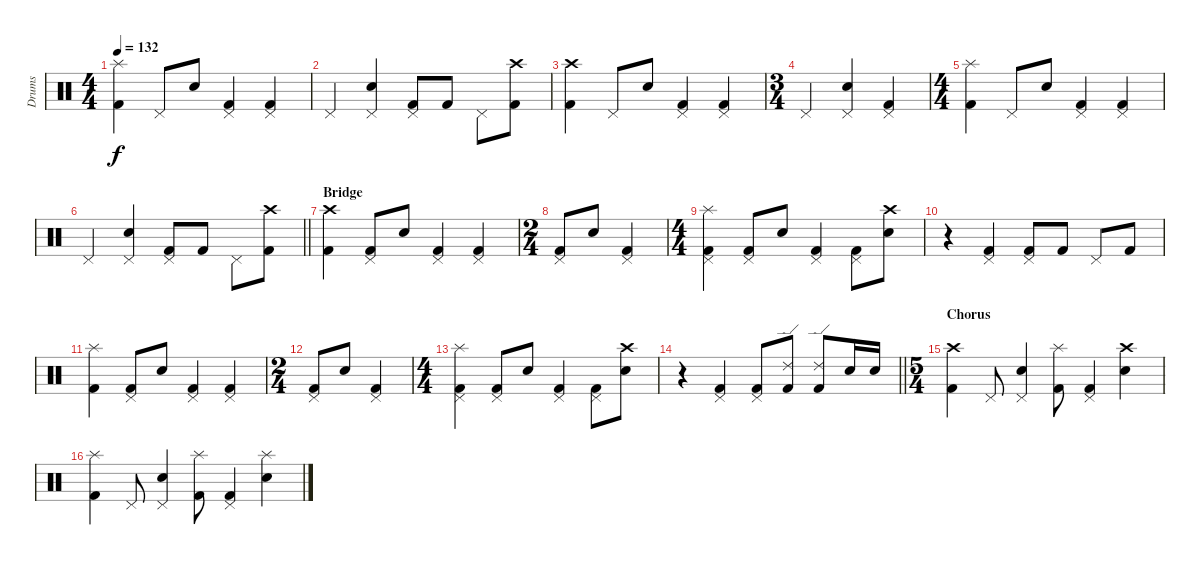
\track ("Drums" "Drums") {instrument percussion}
\staff {score}
\articulation defaults
\ts (4 4)
\tempo 132
\clef neutral
\ks c
("Splash (hit)" "Kick (hit) 2").4{dy f} "Pedal Hi-Hat (hit)".8 "Snare (hit) 2".8 ("Pedal Hi-Hat (hit)" "Kick (hit) 2").4 ("Pedal Hi-Hat (hit)" "Kick (hit) 2").4 |
"Pedal Hi-Hat (hit)".4 ("Pedal Hi-Hat (hit)" "Snare (hit) 2").4 ("Pedal Hi-Hat (hit)" "Kick (hit) 2").8 "Kick (hit) 2".8 "Pedal Hi-Hat (hit)".8 ("Crash high (hit)" "Kick (hit) 2").8 |
("Crash high (hit)" "Kick (hit) 2").4 "Pedal Hi-Hat (hit)".8 "Snare (hit) 2".8 ("Pedal Hi-Hat (hit)" "Kick (hit) 2").4 ("Pedal Hi-Hat (hit)" "Kick (hit) 2").4 |
\ts (3 4)
"Pedal Hi-Hat (hit)".4 ("Pedal Hi-Hat (hit)" "Snare (hit) 2").4 ("Pedal Hi-Hat (hit)" "Kick (hit) 2").4 |
\ts (4 4)
("Splash (hit)" "Kick (hit) 2").4 "Pedal Hi-Hat (hit)".8 "Snare (hit) 2".8 ("Pedal Hi-Hat (hit)" "Kick (hit) 2").4 ("Pedal Hi-Hat (hit)" "Kick (hit) 2").4 |
\barLineRight lightlight "Pedal Hi-Hat (hit)".4
("Pedal Hi-Hat (hit)" "Snare (hit) 2").4 ("Pedal Hi-Hat (hit)" "Kick (hit) 2").8 "Kick (hit) 2".8 "Pedal Hi-Hat (hit)".8 ("Crash high (hit)" "Kick (hit) 2").8 |
\section ("" "Bridge")
("Crash high (hit)" "Kick (hit) 2").4 ("Pedal Hi-Hat (hit)" "Kick (hit) 2").8 "Snare (hit) 2".8 ("Pedal Hi-Hat (hit)" "Kick (hit) 2").4 ("Pedal Hi-Hat (hit)" "Kick (hit) 2").4 |
\ts (2 4)
("Pedal Hi-Hat (hit)" "Kick (hit) 2").8 "Snare (hit) 2".8 ("Pedal Hi-Hat (hit)" "Kick (hit) 2").4 |
\ts (4 4)
("Pedal Hi-Hat (hit)" "Splash (hit)" "Kick (hit) 2").4 ("Pedal Hi-Hat (hit)" "Kick (hit) 2").8 "Snare (hit) 2".8 ("Pedal Hi-Hat (hit)" "Kick (hit) 2").4 ("Pedal Hi-Hat (hit)" "Kick (hit) 2").8 ("Crash high (hit)" "Snare (hit) 2").8 |
r.4 ("Pedal Hi-Hat (hit)" "Kick (hit) 2").4 ("Pedal Hi-Hat (hit)" "Kick (hit) 2").8 "Kick (hit) 2".8 "Pedal Hi-Hat (hit)".8 "Kick (hit) 2".8 |
("Splash (hit)" "Kick (hit) 2").4 ("Pedal Hi-Hat (hit)" "Kick (hit) 2").8 "Snare (hit) 2".8 ("Pedal Hi-Hat (hit)" "Kick (hit) 2").4 ("Pedal Hi-Hat (hit)" "Kick (hit) 2").4 |
\ts (2 4)
("Pedal Hi-Hat (hit)" "Kick (hit) 2").8 "Snare (hit) 2".8 ("Pedal Hi-Hat (hit)" "Kick (hit) 2").4 |
\ts (4 4)
("Pedal Hi-Hat (hit)" "Splash (hit)" "Kick (hit) 2").4 ("Pedal Hi-Hat (hit)" "Kick (hit) 2").8 "Snare (hit) 2".8 ("Pedal Hi-Hat (hit)" "Kick (hit) 2").4 ("Pedal Hi-Hat (hit)" "Kick (hit) 2").8 ("Crash high (hit)" "Snare (hit) 2").8 |
\barLineRight lightlight
r.4 ("Pedal Hi-Hat (hit)" "Kick (hit) 2").4 ("Pedal Hi-Hat (hit)" "Kick (hit) 2").8 ("Ride (edge) 2" "Kick (hit) 2").8 ("Ride (edge) 2" "Kick (hit) 2").8 "Snare (hit) 2".16 "Snare (hit) 2".16 |
\ts (5 4)
\section ("" "Chorus")
("Crash high (hit)" "Kick (hit) 2").4 "Pedal Hi-Hat (hit)".8 ("Pedal Hi-Hat (hit)" "Snare (hit) 2").4 ("Splash (hit)" "Kick (hit) 2").8 ("Pedal Hi-Hat (hit)" "Kick (hit) 2").4 ("Crash high (hit)" "Snare (hit) 2").4 |
("Splash (hit)" "Kick (hit) 2").4 "Pedal Hi-Hat (hit)".8 ("Pedal Hi-Hat (hit)" "Snare (hit) 2").4 ("Splash (hit)" "Kick (hit) 2").8 ("Pedal Hi-Hat (hit)" "Kick (hit) 2").4 ("Splash (hit)" "Snare (hit) 2").4
